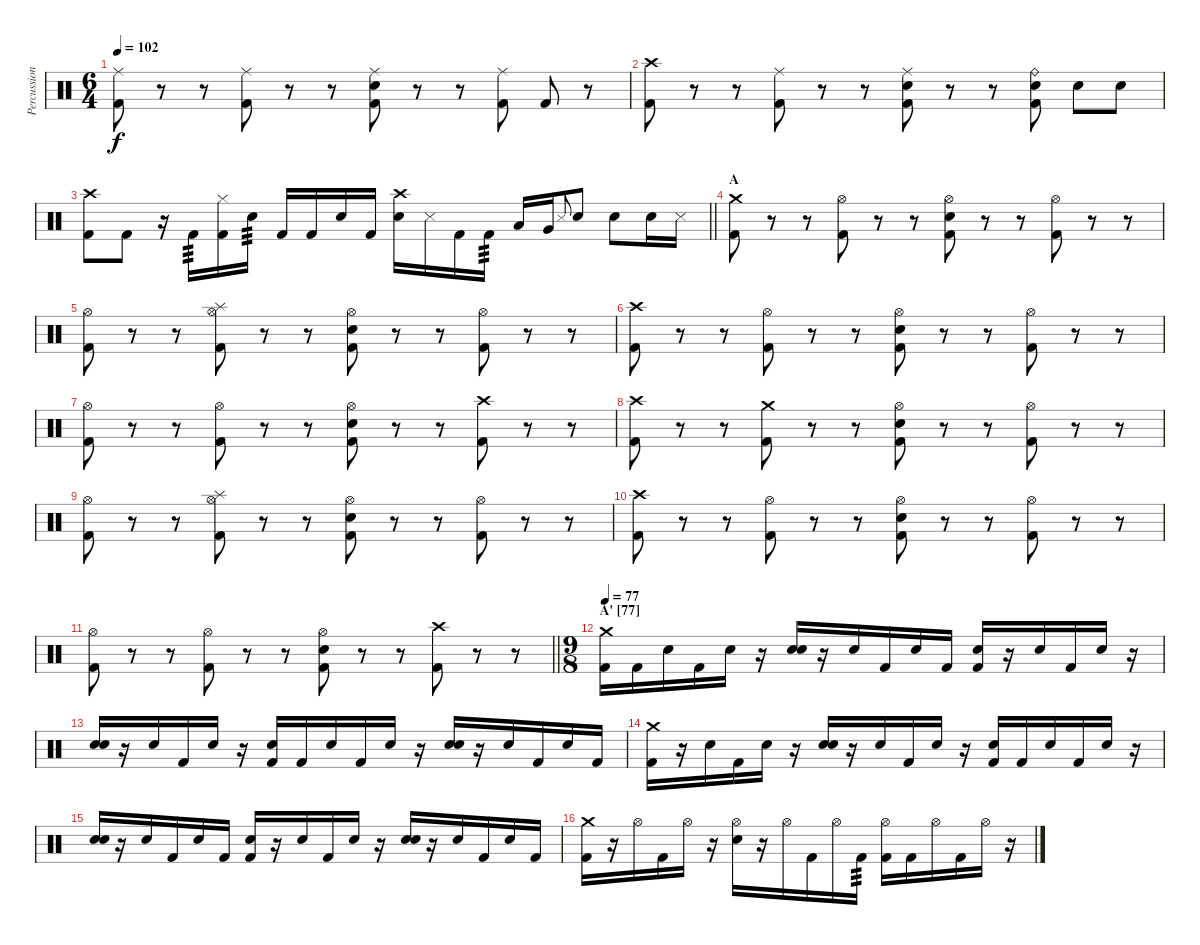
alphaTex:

\track ("Percussion" "Percussion") {instrument percussion}
\staff {score}
\articulation defaults
\ts (6 4)
\tempo 102
\clef neutral
\ks c
("Ride (middle)" "Kick (hit) 2").8{dy f} r.8 r.8 ("Ride (middle)" "Kick (hit) 2").8 r.8 r.8 ("Ride (middle)" "Snare (hit) 2" "Kick (hit) 2").8 r.8 r.8 ("Ride (middle)" "Kick (hit) 2").8 "Kick (hit) 2".8 r.8 |
("Crash high (hit)" "Kick (hit) 2").8 r.8 r.8 ("Ride (middle)" "Kick (hit) 2").8 r.8 r.8 ("Ride (middle)" "Snare (hit) 2" "Kick (hit) 2").8 r.8 r.8 ("Ride (bell)" "Snare (hit) 2" "Kick (hit) 2").8 "Snare (hit) 2".8 "Snare (hit)".8 |
\barLineRight lightlight
("Crash high (hit)" "Kick (hit) 2").8 "Kick (hit) 2".8 r.16 "Kick (hit) 2".16{tp 3} ("Hi-Hat (closed)" "Kick (hit) 2").16 "Snare (hit) 2".16{tp 3} "Kick (hit) 2".16 "Kick (hit) 2".16 "Snare (hit) 2".16 "Kick (hit) 2".16 ("Crash high (hit)" "Snare (hit) 2").16 "Metronome (hit)".16 "Kick (hit) 2".16 "Kick (hit) 2".16{tp 3} "Low Tom (hit)".16 "Very Low Tom (hit)".16 "Metronome (hit)".8{gr onbeat} "Snare (hit) 2".8 "Snare (hit) 2".8 "Snare (hit) 2".16 "Metronome (hit)".16 |
\section ("" "A")
("Crash medium (hit)" "Kick (hit) 2").8 r.8 r.8 ("Hi-Hat (open)" "Kick (hit) 2").8 r.8 r.8 ("Hi-Hat (open)" "Snare (hit) 2" "Kick (hit) 2").8 r.8 r.8 ("Hi-Hat (open)" "Kick (hit) 2").8 r.8 r.8 |
("Hi-Hat (open)" "Kick (hit) 2").8 r.8 r.8 ("Hi-Hat (open)" "Splash (hit)" "Kick (hit) 2").8 r.8 r.8 ("Hi-Hat (open)" "Snare (hit) 2" "Kick (hit) 2").8 r.8 r.8 ("Hi-Hat (open)" "Kick (hit) 2").8 r.8 r.8 |
("Crash high (hit)" "Kick (hit) 2").8 r.8 r.8 ("Hi-Hat (open)" "Kick (hit) 2").8 r.8 r.8 ("Hi-Hat (open)" "Snare (hit) 2" "Kick (hit) 2").8 r.8 r.8 ("Hi-Hat (open)" "Kick (hit) 2").8 r.8 r.8 |
("Hi-Hat (open)" "Kick (hit) 2").8 r.8 r.8 ("Hi-Hat (open)" "Kick (hit) 2").8 r.8 r.8 ("Hi-Hat (open)" "Snare (hit) 2" "Kick (hit) 2").8 r.8 r.8 ("Crash high (hit)" "Kick (hit) 2").8 r.8 r.8 |
("Crash high (hit)" "Kick (hit) 2").8 r.8 r.8 ("Crash medium (hit)" "Kick (hit) 2").8 r.8 r.8 ("Hi-Hat (open)" "Snare (hit) 2" "Kick (hit) 2").8 r.8 r.8 ("Hi-Hat (open)" "Kick (hit) 2").8 r.8 r.8 |
("Hi-Hat (open)" "Kick (hit) 2").8 r.8 r.8 ("Hi-Hat (open)" "Splash (hit)" "Kick (hit) 2").8 r.8 r.8 ("Hi-Hat (open)" "Snare (hit) 2" "Kick (hit) 2").8 r.8 r.8 ("Hi-Hat (open)" "Kick (hit) 2").8 r.8 r.8 |
("Crash high (hit)" "Kick (hit) 2").8 r.8 r.8 ("Hi-Hat (open)" "Kick (hit) 2").8 r.8 r.8 ("Hi-Hat (open)" "Snare (hit) 2" "Kick (hit) 2").8 r.8 r.8 ("Hi-Hat (open)" "Kick (hit) 2").8 r.8 r.8 |
\barLineRight lightlight
("Hi-Hat (open)" "Kick (hit) 2").8 r.8 r.8 ("Hi-Hat (open)" "Kick (hit) 2").8 r.8 r.8 ("Hi-Hat (open)" "Snare (hit) 2" "Kick (hit) 2").8 r.8 r.8 ("Crash high (hit)" "Kick (hit) 2").8 r.8 r.8 |
\ts (9 8)
\section ("" "A' [77]")
\tempo 77
("Crash medium (hit)" "Kick (hit) 2").16 "Kick (hit) 2".16 "Snare (hit)".16 "Kick (hit) 2".16 "Snare (hit)".16 r.16 ("Snare (hit)" "Snare (hit) 2").16 r.16 "Snare (hit)".16 "Kick (hit) 2".16 "Snare (hit)".16 "Kick (hit) 2".16 ("Snare (hit)" "Kick (hit) 2").16 r.16 "Snare (hit)".16 "Kick (hit) 2".16 "Snare (hit)".16 r.16 |
("Snare (hit)" "Snare (hit) 2").16 r.16 "Snare (hit)".16 "Kick (hit) 2".16 "Snare (hit)".16 r.16 ("Snare (hit)" "Kick (hit) 2").16 "Kick (hit) 2".16 "Snare (hit)".16 "Kick (hit) 2".16 "Snare (hit)".16 r.16 ("Snare (hit)" "Snare (hit) 2").16 r.16 "Snare (hit)".16 "Kick (hit) 2".16 "Snare (hit)".16 "Kick (hit) 2".16 |
("Crash medium (hit)" "Kick (hit) 2").16 r.16 "Snare (hit)".16 "Kick (hit) 2".16 "Snare (hit)".16 r.16 ("Snare (hit)" "Snare (hit) 2").16 r.16 "Snare (hit)".16 "Kick (hit) 2".16 "Snare (hit)".16 r.16 ("Snare (hit)" "Kick (hit) 2").16 "Kick (hit) 2".16 "Snare (hit)".16 "Kick (hit) 2".16 "Snare (hit)".16 r.16 |
("Snare (hit)" "Snare (hit) 2").16 r.16 "Snare (hit)".16 "Kick (hit) 2".16 "Snare (hit)".16 "Kick (hit) 2".16 ("Snare (hit)" "Kick (hit) 2").16 r.16 "Snare (hit)".16 "Kick (hit) 2".16 "Snare (hit)".16 r.16 ("Snare (hit)" "Snare (hit) 2").16 r.16 "Snare (hit)".16 "Kick (hit) 2".16 "Snare (hit)".16 "Kick (hit) 2".16 |
("Crash medium (hit)" "Kick (hit) 2").16 r.16 "Hi-Hat (open)".16 "Kick (hit) 2".16 "Hi-Hat (open)".16 r.16 ("Hi-Hat (open)" "Snare (hit) 2").16 r.16 "Hi-Hat (open)".16 "Kick (hit) 2".16 "Hi-Hat (open)".16 "Kick (hit) 2".16{tp 3} ("Hi-Hat (open)" "Kick (hit) 2").16 "Kick (hit) 2".16 "Hi-Hat (open)".16 "Kick (hit) 2".16 "Hi-Hat (open)".16 r.16
